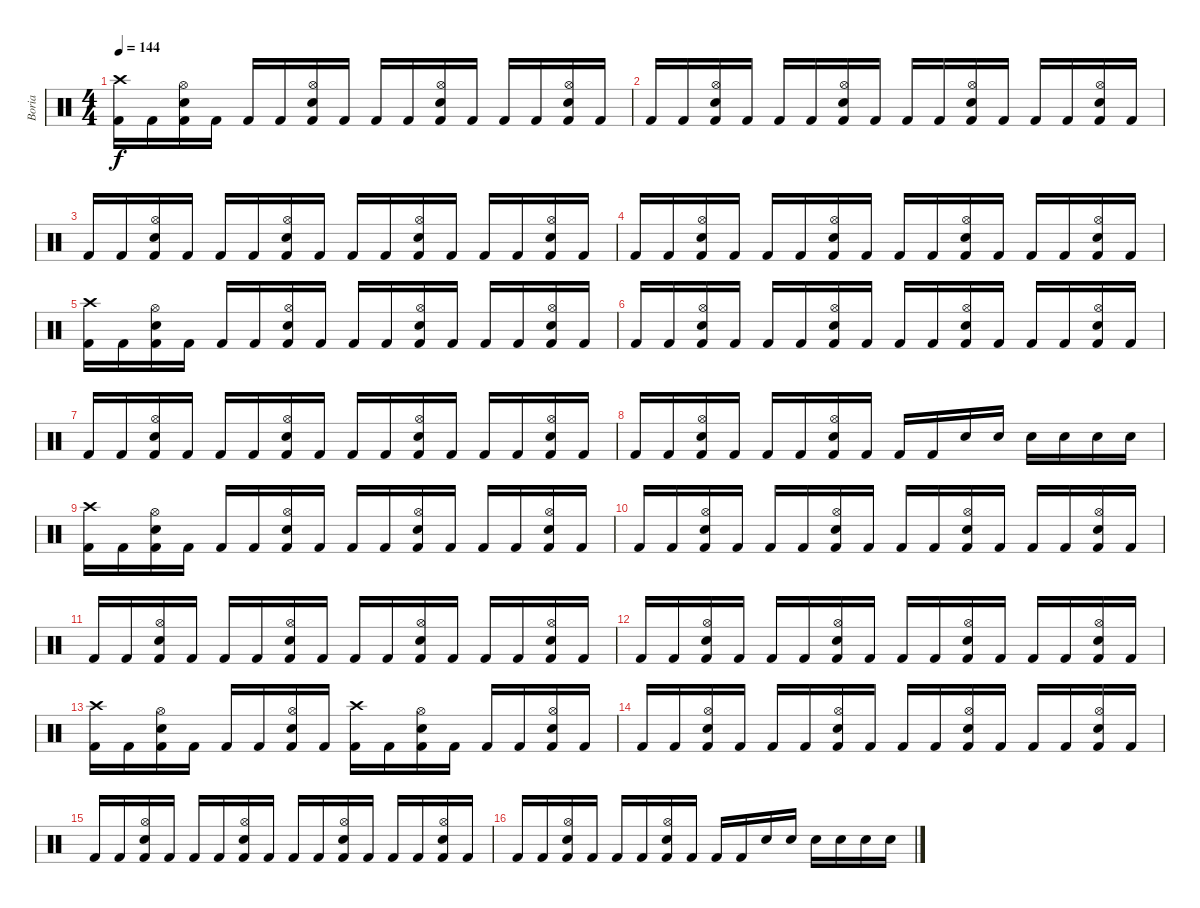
\track ("Boria" "Boria") {instrument percussion}
\staff {score}
\articulation defaults
\ts (4 4)
\tempo 144
\clef neutral
\ks c
("Crash high (hit)" "Kick (hit) 2").16{dy f} "Kick (hit) 2".16 ("Hi-Hat (open)" "Electric Snare (hit)" "Kick (hit) 2").16 "Kick (hit) 2".16 "Kick (hit) 2".16 "Kick (hit) 2".16 ("Hi-Hat (open)" "Electric Snare (hit)" "Kick (hit) 2").16 "Kick (hit) 2".16 "Kick (hit) 2".16 "Kick (hit) 2".16 ("Hi-Hat (open)" "Electric Snare (hit)" "Kick (hit) 2").16 "Kick (hit) 2".16 "Kick (hit) 2".16 "Kick (hit) 2".16 ("Hi-Hat (open)" "Electric Snare (hit)" "Kick (hit) 2").16 "Kick (hit) 2".16 |
"Kick (hit) 2".16 "Kick (hit) 2".16 ("Hi-Hat (open)" "Electric Snare (hit)" "Kick (hit) 2").16 "Kick (hit) 2".16 "Kick (hit) 2".16 "Kick (hit) 2".16 ("Hi-Hat (open)" "Electric Snare (hit)" "Kick (hit) 2").16 "Kick (hit) 2".16 "Kick (hit) 2".16 "Kick (hit) 2".16 ("Hi-Hat (open)" "Electric Snare (hit)" "Kick (hit) 2").16 "Kick (hit) 2".16 "Kick (hit) 2".16 "Kick (hit) 2".16 ("Hi-Hat (open)" "Electric Snare (hit)" "Kick (hit) 2").16 "Kick (hit) 2".16 |
"Kick (hit) 2".16 "Kick (hit) 2".16 ("Hi-Hat (open)" "Electric Snare (hit)" "Kick (hit) 2").16 "Kick (hit) 2".16 "Kick (hit) 2".16 "Kick (hit) 2".16 ("Hi-Hat (open)" "Electric Snare (hit)" "Kick (hit) 2").16 "Kick (hit) 2".16 "Kick (hit) 2".16 "Kick (hit) 2".16 ("Hi-Hat (open)" "Electric Snare (hit)" "Kick (hit) 2").16 "Kick (hit) 2".16 "Kick (hit) 2".16 "Kick (hit) 2".16 ("Hi-Hat (open)" "Electric Snare (hit)" "Kick (hit) 2").16 "Kick (hit) 2".16 |
"Kick (hit) 2".16 "Kick (hit) 2".16 ("Hi-Hat (open)" "Electric Snare (hit)" "Kick (hit) 2").16 "Kick (hit) 2".16 "Kick (hit) 2".16 "Kick (hit) 2".16 ("Hi-Hat (open)" "Electric Snare (hit)" "Kick (hit) 2").16 "Kick (hit) 2".16 "Kick (hit) 2".16 "Kick (hit) 2".16 ("Hi-Hat (open)" "Electric Snare (hit)" "Kick (hit) 2").16 "Kick (hit) 2".16 "Kick (hit) 2".16 "Kick (hit) 2".16 ("Hi-Hat (open)" "Electric Snare (hit)" "Kick (hit) 2").16 "Kick (hit) 2".16 |
("Crash high (hit)" "Kick (hit) 2").16 "Kick (hit) 2".16 ("Hi-Hat (open)" "Electric Snare (hit)" "Kick (hit) 2").16 "Kick (hit) 2".16 "Kick (hit) 2".16 "Kick (hit) 2".16 ("Hi-Hat (open)" "Electric Snare (hit)" "Kick (hit) 2").16 "Kick (hit) 2".16 "Kick (hit) 2".16 "Kick (hit) 2".16 ("Hi-Hat (open)" "Electric Snare (hit)" "Kick (hit) 2").16 "Kick (hit) 2".16 "Kick (hit) 2".16 "Kick (hit) 2".16 ("Hi-Hat (open)" "Electric Snare (hit)" "Kick (hit) 2").16 "Kick (hit) 2".16 |
"Kick (hit) 2".16 "Kick (hit) 2".16 ("Hi-Hat (open)" "Electric Snare (hit)" "Kick (hit) 2").16 "Kick (hit) 2".16 "Kick (hit) 2".16 "Kick (hit) 2".16 ("Hi-Hat (open)" "Electric Snare (hit)" "Kick (hit) 2").16 "Kick (hit) 2".16 "Kick (hit) 2".16 "Kick (hit) 2".16 ("Hi-Hat (open)" "Electric Snare (hit)" "Kick (hit) 2").16 "Kick (hit) 2".16 "Kick (hit) 2".16 "Kick (hit) 2".16 ("Hi-Hat (open)" "Electric Snare (hit)" "Kick (hit) 2").16 "Kick (hit) 2".16 |
"Kick (hit) 2".16 "Kick (hit) 2".16 ("Hi-Hat (open)" "Electric Snare (hit)" "Kick (hit) 2").16 "Kick (hit) 2".16 "Kick (hit) 2".16 "Kick (hit) 2".16 ("Hi-Hat (open)" "Electric Snare (hit)" "Kick (hit) 2").16 "Kick (hit) 2".16 "Kick (hit) 2".16 "Kick (hit) 2".16 ("Hi-Hat (open)" "Electric Snare (hit)" "Kick (hit) 2").16 "Kick (hit) 2".16 "Kick (hit) 2".16 "Kick (hit) 2".16 ("Hi-Hat (open)" "Electric Snare (hit)" "Kick (hit) 2").16 "Kick (hit) 2".16 |
"Kick (hit) 2".16 "Kick (hit) 2".16 ("Hi-Hat (open)" "Electric Snare (hit)" "Kick (hit) 2").16 "Kick (hit) 2".16 "Kick (hit) 2".16 "Kick (hit) 2".16 ("Hi-Hat (open)" "Electric Snare (hit)" "Kick (hit) 2").16 "Kick (hit) 2".16 "Kick (hit) 2".16 "Kick (hit) 2".16 "Electric Snare (hit)".16 "Electric Snare (hit)".16 "Electric Snare (hit)".16 "Electric Snare (hit)".16 "Electric Snare (hit)".16 "Electric Snare (hit)".16 |
("Crash high (hit)" "Kick (hit) 2").16 "Kick (hit) 2".16 ("Hi-Hat (open)" "Electric Snare (hit)" "Kick (hit) 2").16 "Kick (hit) 2".16 "Kick (hit) 2".16 "Kick (hit) 2".16 ("Hi-Hat (open)" "Electric Snare (hit)" "Kick (hit) 2").16 "Kick (hit) 2".16 "Kick (hit) 2".16 "Kick (hit) 2".16 ("Hi-Hat (open)" "Electric Snare (hit)" "Kick (hit) 2").16 "Kick (hit) 2".16 "Kick (hit) 2".16 "Kick (hit) 2".16 ("Hi-Hat (open)" "Electric Snare (hit)" "Kick (hit) 2").16 "Kick (hit) 2".16 |
"Kick (hit) 2".16 "Kick (hit) 2".16 ("Hi-Hat (open)" "Electric Snare (hit)" "Kick (hit) 2").16 "Kick (hit) 2".16 "Kick (hit) 2".16 "Kick (hit) 2".16 ("Hi-Hat (open)" "Electric Snare (hit)" "Kick (hit) 2").16 "Kick (hit) 2".16 "Kick (hit) 2".16 "Kick (hit) 2".16 ("Hi-Hat (open)" "Electric Snare (hit)" "Kick (hit) 2").16 "Kick (hit) 2".16 "Kick (hit) 2".16 "Kick (hit) 2".16 ("Hi-Hat (open)" "Electric Snare (hit)" "Kick (hit) 2").16 "Kick (hit) 2".16 |
"Kick (hit) 2".16 "Kick (hit) 2".16 ("Hi-Hat (open)" "Electric Snare (hit)" "Kick (hit) 2").16 "Kick (hit) 2".16 "Kick (hit) 2".16 "Kick (hit) 2".16 ("Hi-Hat (open)" "Electric Snare (hit)" "Kick (hit) 2").16 "Kick (hit) 2".16 "Kick (hit) 2".16 "Kick (hit) 2".16 ("Hi-Hat (open)" "Electric Snare (hit)" "Kick (hit) 2").16 "Kick (hit) 2".16 "Kick (hit) 2".16 "Kick (hit) 2".16 ("Hi-Hat (open)" "Electric Snare (hit)" "Kick (hit) 2").16 "Kick (hit) 2".16 |
"Kick (hit) 2".16 "Kick (hit) 2".16 ("Hi-Hat (open)" "Electric Snare (hit)" "Kick (hit) 2").16 "Kick (hit) 2".16 "Kick (hit) 2".16 "Kick (hit) 2".16 ("Hi-Hat (open)" "Electric Snare (hit)" "Kick (hit) 2").16 "Kick (hit) 2".16 "Kick (hit) 2".16 "Kick (hit) 2".16 ("Hi-Hat (open)" "Electric Snare (hit)" "Kick (hit) 2").16 "Kick (hit) 2".16 "Kick (hit) 2".16 "Kick (hit) 2".16 ("Hi-Hat (open)" "Electric Snare (hit)" "Kick (hit) 2").16 "Kick (hit) 2".16 |
("Crash high (hit)" "Kick (hit) 2").16 "Kick (hit) 2".16 ("Hi-Hat (open)" "Electric Snare (hit)" "Kick (hit) 2").16 "Kick (hit) 2".16 "Kick (hit) 2".16 "Kick (hit) 2".16 ("Hi-Hat (open)" "Electric Snare (hit)" "Kick (hit) 2").16 "Kick (hit) 2".16 ("Crash high (hit)" "Kick (hit) 2").16 "Kick (hit) 2".16 ("Hi-Hat (open)" "Electric Snare (hit)" "Kick (hit) 2").16 "Kick (hit) 2".16 "Kick (hit) 2".16 "Kick (hit) 2".16 ("Hi-Hat (open)" "Electric Snare (hit)" "Kick (hit) 2").16 "Kick (hit) 2".16 |
"Kick (hit) 2".16 "Kick (hit) 2".16 ("Hi-Hat (open)" "Electric Snare (hit)" "Kick (hit) 2").16 "Kick (hit) 2".16 "Kick (hit) 2".16 "Kick (hit) 2".16 ("Hi-Hat (open)" "Electric Snare (hit)" "Kick (hit) 2").16 "Kick (hit) 2".16 "Kick (hit) 2".16 "Kick (hit) 2".16 ("Hi-Hat (open)" "Electric Snare (hit)" "Kick (hit) 2").16 "Kick (hit) 2".16 "Kick (hit) 2".16 "Kick (hit) 2".16 ("Hi-Hat (open)" "Electric Snare (hit)" "Kick (hit) 2").16 "Kick (hit) 2".16 |
"Kick (hit) 2".16 "Kick (hit) 2".16 ("Hi-Hat (open)" "Electric Snare (hit)" "Kick (hit) 2").16 "Kick (hit) 2".16 "Kick (hit) 2".16 "Kick (hit) 2".16 ("Hi-Hat (open)" "Electric Snare (hit)" "Kick (hit) 2").16 "Kick (hit) 2".16 "Kick (hit) 2".16 "Kick (hit) 2".16 ("Hi-Hat (open)" "Electric Snare (hit)" "Kick (hit) 2").16 "Kick (hit) 2".16 "Kick (hit) 2".16 "Kick (hit) 2".16 ("Hi-Hat (open)" "Electric Snare (hit)" "Kick (hit) 2").16 "Kick (hit) 2".16 |
"Kick (hit) 2".16 "Kick (hit) 2".16 ("Hi-Hat (open)" "Electric Snare (hit)" "Kick (hit) 2").16 "Kick (hit) 2".16 "Kick (hit) 2".16 "Kick (hit) 2".16 ("Hi-Hat (open)" "Electric Snare (hit)" "Kick (hit) 2").16 "Kick (hit) 2".16 "Kick (hit) 2".16 "Kick (hit) 2".16 "Electric Snare (hit)".16 "Electric Snare (hit)".16 "Electric Snare (hit)".16 "Electric Snare (hit)".16 "Electric Snare (hit)".16 "Electric Snare (hit)".16
